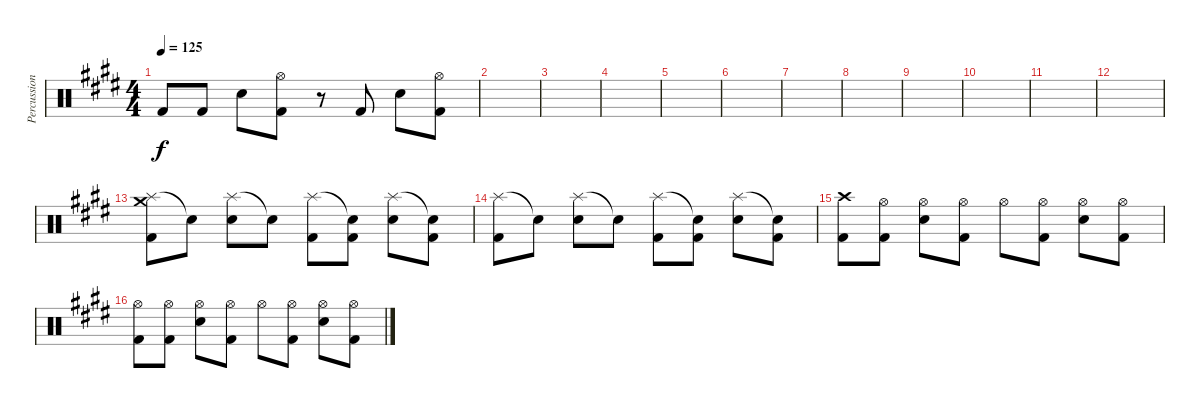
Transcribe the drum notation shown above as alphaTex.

\track ("Percussion" "Percussion") {instrument percussion}
\staff {score}
\articulation defaults
\ts (4 4)
\tempo 125
\clef neutral
\ks e "Kick (hit) 2".8{dy f} "Kick (hit) 2".8 "Electric Snare (hit)".8
("Hi-Hat (open)" "Kick (hit) 2").8 r.8 "Kick (hit) 2".8 "Electric Snare (hit)".8 ("Hi-Hat (open)" "Kick (hit) 2").8 |
|
|
|
|
|
|
|
|
|
|
|
("Splash (hit)" "Crash medium (hit)" "Kick (hit) 2").8 "Snare (hit)"{t}.8 ("Splash (hit)" "Electric Snare (hit)").8 "Snare (hit)"{t}.8 ("Splash (hit)" "Kick (hit) 2").8 ("Snare (hit)"{t} "Kick (hit) 2").8 ("Splash (hit)" "Electric Snare (hit)").8 ("Snare (hit)"{t} "Kick (hit) 2").8 |
("Splash (hit)" "Kick (hit) 2").8 "Snare (hit)"{t}.8 ("Splash (hit)" "Electric Snare (hit)").8 "Snare (hit)"{t}.8 ("Splash (hit)" "Kick (hit) 2").8 ("Snare (hit)"{t} "Kick (hit) 2").8 ("Splash (hit)" "Electric Snare (hit)").8 ("Snare (hit)"{t} "Kick (hit) 2").8 |
("Crash high (hit)" "Kick (hit) 2").8 ("Hi-Hat (open)" "Kick (hit) 2").8 ("Hi-Hat (open)" "Electric Snare (hit)").8 ("Hi-Hat (open)" "Kick (hit) 2").8 "Hi-Hat (open)".8 ("Hi-Hat (open)" "Kick (hit) 2").8 ("Hi-Hat (open)" "Electric Snare (hit)").8 ("Hi-Hat (open)" "Kick (hit) 2").8 |
("Hi-Hat (open)" "Kick (hit) 2").8 ("Hi-Hat (open)" "Kick (hit) 2").8 ("Hi-Hat (open)" "Electric Snare (hit)").8 ("Hi-Hat (open)" "Kick (hit) 2").8 "Hi-Hat (open)".8 ("Hi-Hat (open)" "Kick (hit) 2").8 ("Hi-Hat (open)" "Electric Snare (hit)").8 ("Hi-Hat (open)" "Kick (hit) 2").8
